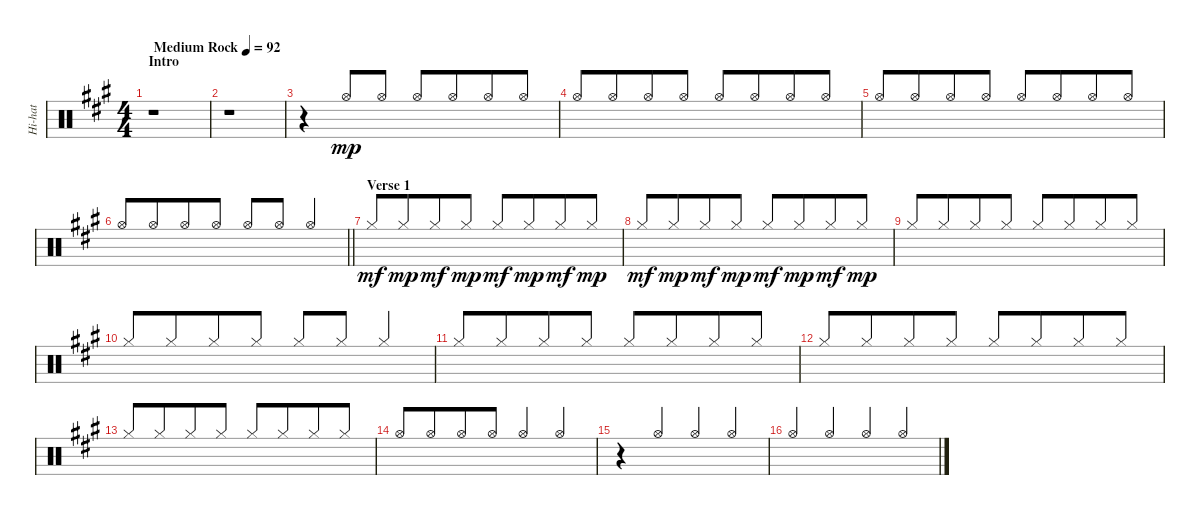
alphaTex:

\track ("Hi-hat" "Hi-hat") {instrument percussion}
\staff {score}
\articulation defaults
\ts (4 4)
\section ("" "Intro")
\tempo (92 "Medium Rock")
\clef neutral
\ks f#minor
r.1{dy mp} |
r.1 |
r.4{volume 8 balance 10} "Hi-Hat (open)".8{beam Up} "Hi-Hat (open)".8{beam Up} "Hi-Hat (open)".8{beam Up} "Hi-Hat (open)".8{beam Up beam merge} "Hi-Hat (open)".8{beam Up} "Hi-Hat (open)".8{beam Up} |
"Hi-Hat (open)".8{beam Up} "Hi-Hat (open)".8{beam Up beam merge} "Hi-Hat (open)".8{beam Up} "Hi-Hat (open)".8{beam Up} "Hi-Hat (open)".8{beam Up} "Hi-Hat (open)".8{beam Up beam merge} "Hi-Hat (open)".8{beam Up} "Hi-Hat (open)".8{beam Up} |
"Hi-Hat (open)".8{beam Up} "Hi-Hat (open)".8{beam Up beam merge} "Hi-Hat (open)".8{beam Up} "Hi-Hat (open)".8{beam Up} "Hi-Hat (open)".8{beam Up} "Hi-Hat (open)".8{beam Up beam merge} "Hi-Hat (open)".8{beam Up} "Hi-Hat (open)".8{beam Up} |
\barLineRight lightlight "Hi-Hat (open)".8{beam Up} "Hi-Hat (open)".8{beam Up beam merge} "Hi-Hat (open)".8{beam Up} "Hi-Hat (open)".8{beam Up} "Hi-Hat (open)".8{beam Up} "Hi-Hat (open)".8{beam Up} "Hi-Hat (open)".4{beam Up}
|
\section ("" "Verse 1")
"Hi-Hat (closed)".8{dy mf volume 11 beam Up} "Hi-Hat (closed)".8{dy mp beam Up beam merge} "Hi-Hat (closed)".8{dy mf beam Up} "Hi-Hat (closed)".8{dy mp beam Up} "Hi-Hat (closed)".8{dy mf beam Up} "Hi-Hat (closed)".8{dy mp beam Up beam merge} "Hi-Hat (closed)".8{dy mf beam Up} "Hi-Hat (closed)".8{dy mp beam Up} |
"Hi-Hat (closed)".8{dy mf beam Up} "Hi-Hat (closed)".8{dy mp beam Up beam merge} "Hi-Hat (closed)".8{dy mf beam Up} "Hi-Hat (closed)".8{dy mp beam Up} "Hi-Hat (closed)".8{dy mf beam Up} "Hi-Hat (closed)".8{dy mp beam Up beam merge} "Hi-Hat (closed)".8{dy mf beam Up} "Hi-Hat (closed)".8{dy mp beam Up} |
"Hi-Hat (closed)".8{beam Up} "Hi-Hat (closed)".8{beam Up beam merge} "Hi-Hat (closed)".8{beam Up} "Hi-Hat (closed)".8{beam Up} "Hi-Hat (closed)".8{beam Up} "Hi-Hat (closed)".8{beam Up beam merge} "Hi-Hat (closed)".8{beam Up} "Hi-Hat (closed)".8{beam Up} |
"Hi-Hat (closed)".8{beam Up} "Hi-Hat (closed)".8{beam Up beam merge} "Hi-Hat (closed)".8{beam Up} "Hi-Hat (closed)".8{beam Up} "Hi-Hat (closed)".8{beam Up} "Hi-Hat (closed)".8{beam Up} "Hi-Hat (closed)".4{beam Up} |
"Hi-Hat (closed)".8{beam Up} "Hi-Hat (closed)".8{beam Up beam merge} "Hi-Hat (closed)".8{beam Up} "Hi-Hat (closed)".8{beam Up} "Hi-Hat (closed)".8{beam Up} "Hi-Hat (closed)".8{beam Up beam merge} "Hi-Hat (closed)".8{beam Up} "Hi-Hat (closed)".8{beam Up} |
"Hi-Hat (closed)".8{beam Up} "Hi-Hat (closed)".8{beam Up beam merge} "Hi-Hat (closed)".8{beam Up} "Hi-Hat (closed)".8{beam Up} "Hi-Hat (closed)".8{beam Up} "Hi-Hat (closed)".8{beam Up beam merge} "Hi-Hat (closed)".8{beam Up} "Hi-Hat (closed)".8{beam Up} |
"Hi-Hat (closed)".8{beam Up} "Hi-Hat (closed)".8{beam Up beam merge} "Hi-Hat (closed)".8{beam Up} "Hi-Hat (closed)".8{beam Up} "Hi-Hat (closed)".8{beam Up} "Hi-Hat (closed)".8{beam Up beam merge} "Hi-Hat (closed)".8{beam Up} "Hi-Hat (closed)".8{beam Up} |
"Hi-Hat (open)".8{beam Up} "Hi-Hat (open)".8{beam Up beam merge} "Hi-Hat (open)".8{beam Up} "Hi-Hat (open)".8{beam Up} "Hi-Hat (open)".4{beam Up} "Hi-Hat (open)".4{beam Up} |
r.4 "Hi-Hat (open)".4{beam Up} "Hi-Hat (open)".4{beam Up} "Hi-Hat (open)".4{beam Up} |
"Hi-Hat (open)".4{beam Up} "Hi-Hat (open)".4{beam Up} "Hi-Hat (open)".4{beam Up} "Hi-Hat (open)".4{beam Up}
